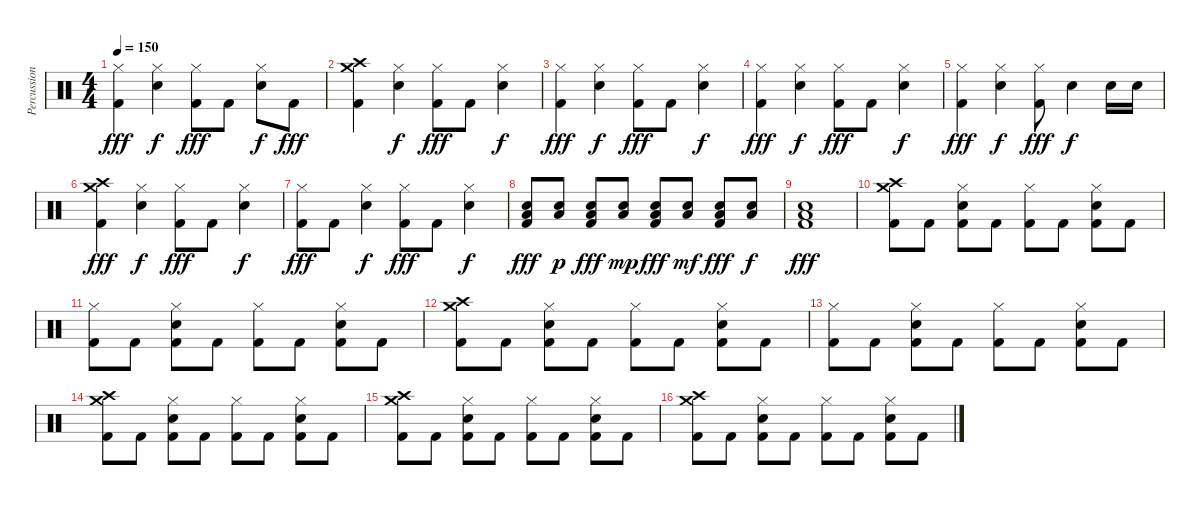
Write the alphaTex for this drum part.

\track ("Percussion" "Percussion") {instrument percussion}
\staff {score}
\articulation defaults
\ts (4 4)
\tempo 150
\clef neutral
\ks c
("Hi-Hat (closed)" "Kick (hit) 2").4{dy fff} ("Hi-Hat (closed)" "Electric Snare (hit)").4{dy f} ("Hi-Hat (closed)" "Kick (hit) 2").8{dy fff} "Kick (hit) 2".8 ("Hi-Hat (closed)" "Electric Snare (hit)").8{dy f} "Kick (hit) 2".8{dy fff} |
("Crash medium (hit)" "Crash high (hit)" "Kick (hit) 2").4 ("Hi-Hat (closed)" "Electric Snare (hit)").4{dy f} ("Hi-Hat (closed)" "Kick (hit) 2").8{dy fff} "Kick (hit) 2".8 ("Hi-Hat (closed)" "Electric Snare (hit)").4{dy f} |
("Hi-Hat (closed)" "Kick (hit) 2").4{dy fff} ("Hi-Hat (closed)" "Electric Snare (hit)").4{dy f} ("Hi-Hat (closed)" "Kick (hit) 2").8{dy fff} "Kick (hit) 2".8 ("Hi-Hat (closed)" "Electric Snare (hit)").4{dy f} |
("Hi-Hat (closed)" "Kick (hit) 2").4{dy fff} ("Hi-Hat (closed)" "Electric Snare (hit)").4{dy f} ("Hi-Hat (closed)" "Kick (hit) 2").8{dy fff} "Kick (hit) 2".8 ("Hi-Hat (closed)" "Electric Snare (hit)").4{dy f} |
("Hi-Hat (closed)" "Kick (hit) 2").4{dy fff} ("Hi-Hat (closed)" "Electric Snare (hit)").4{dy f} ("Hi-Hat (closed)" "Kick (hit) 2").8{dy fff} "Electric Snare (hit)".4{dy f} "Electric Snare (hit)".16 "Electric Snare (hit)".16 |
("Crash medium (hit)" "Crash high (hit)" "Kick (hit) 2").4{dy fff} ("Hi-Hat (closed)" "Electric Snare (hit)").4{dy f} ("Hi-Hat (closed)" "Kick (hit) 2").8{dy fff} "Kick (hit) 2".8 ("Hi-Hat (closed)" "Electric Snare (hit)").4{dy f} |
("Hi-Hat (closed)" "Kick (hit) 2").8{dy fff} "Kick (hit) 2".8 ("Hi-Hat (closed)" "Electric Snare (hit)").4{dy f} ("Hi-Hat (closed)" "Kick (hit) 2").8{dy fff} "Kick (hit) 2".8 ("Hi-Hat (closed)" "Electric Snare (hit)").4{dy f} |
("Electric Snare (hit)" "Low Floor Tom (hit)" "Kick (hit) 2").8{dy fff} ("Electric Snare (hit)" "Low Floor Tom (hit)").8{dy p} ("Electric Snare (hit)" "Low Floor Tom (hit)" "Kick (hit) 2").8{dy fff} ("Electric Snare (hit)" "Low Floor Tom (hit)").8{dy mp} ("Electric Snare (hit)" "Low Floor Tom (hit)" "Kick (hit) 2").8{dy fff} ("Electric Snare (hit)" "Low Floor Tom (hit)").8{dy mf} ("Electric Snare (hit)" "Low Floor Tom (hit)" "Kick (hit) 2").8{dy fff} ("Electric Snare (hit)" "Low Floor Tom (hit)").8{dy f} |
("Electric Snare (hit)" "Low Floor Tom (hit)" "Kick (hit) 2").1{dy fff} |
("Crash high (hit)" "Crash medium (hit)" "Kick (hit) 2").8 "Kick (hit) 2".8 ("Hi-Hat (closed)" "Electric Snare (hit)" "Kick (hit) 2").8 "Kick (hit) 2".8 ("Hi-Hat (closed)" "Kick (hit) 2").8 "Kick (hit) 2".8 ("Hi-Hat (closed)" "Electric Snare (hit)" "Kick (hit) 2").8 "Kick (hit) 2".8 |
("Hi-Hat (closed)" "Kick (hit) 2").8 "Kick (hit) 2".8 ("Hi-Hat (closed)" "Electric Snare (hit)" "Kick (hit) 2").8 "Kick (hit) 2".8 ("Hi-Hat (closed)" "Kick (hit) 2").8 "Kick (hit) 2".8 ("Hi-Hat (closed)" "Electric Snare (hit)" "Kick (hit) 2").8 "Kick (hit) 2".8 |
("Crash high (hit)" "Crash medium (hit)" "Kick (hit) 2").8 "Kick (hit) 2".8 ("Hi-Hat (closed)" "Electric Snare (hit)" "Kick (hit) 2").8 "Kick (hit) 2".8 ("Hi-Hat (closed)" "Kick (hit) 2").8 "Kick (hit) 2".8 ("Hi-Hat (closed)" "Electric Snare (hit)" "Kick (hit) 2").8 "Kick (hit) 2".8 |
("Hi-Hat (closed)" "Kick (hit) 2").8 "Kick (hit) 2".8 ("Hi-Hat (closed)" "Electric Snare (hit)" "Kick (hit) 2").8 "Kick (hit) 2".8 ("Hi-Hat (closed)" "Kick (hit) 2").8 "Kick (hit) 2".8 ("Hi-Hat (closed)" "Electric Snare (hit)" "Kick (hit) 2").8 "Kick (hit) 2".8 |
("Crash high (hit)" "Crash medium (hit)" "Kick (hit) 2").8 "Kick (hit) 2".8 ("Hi-Hat (closed)" "Electric Snare (hit)" "Kick (hit) 2").8 "Kick (hit) 2".8 ("Hi-Hat (closed)" "Kick (hit) 2").8 "Kick (hit) 2".8 ("Hi-Hat (closed)" "Electric Snare (hit)" "Kick (hit) 2").8 "Kick (hit) 2".8 |
("Crash high (hit)" "Crash medium (hit)" "Kick (hit) 2").8 "Kick (hit) 2".8 ("Hi-Hat (closed)" "Electric Snare (hit)" "Kick (hit) 2").8 "Kick (hit) 2".8 ("Hi-Hat (closed)" "Kick (hit) 2").8 "Kick (hit) 2".8 ("Hi-Hat (closed)" "Electric Snare (hit)" "Kick (hit) 2").8 "Kick (hit) 2".8 |
("Crash high (hit)" "Crash medium (hit)" "Kick (hit) 2").8 "Kick (hit) 2".8 ("Hi-Hat (closed)" "Electric Snare (hit)" "Kick (hit) 2").8 "Kick (hit) 2".8 ("Hi-Hat (closed)" "Kick (hit) 2").8 "Kick (hit) 2".8 ("Hi-Hat (closed)" "Electric Snare (hit)" "Kick (hit) 2").8 "Kick (hit) 2".8
